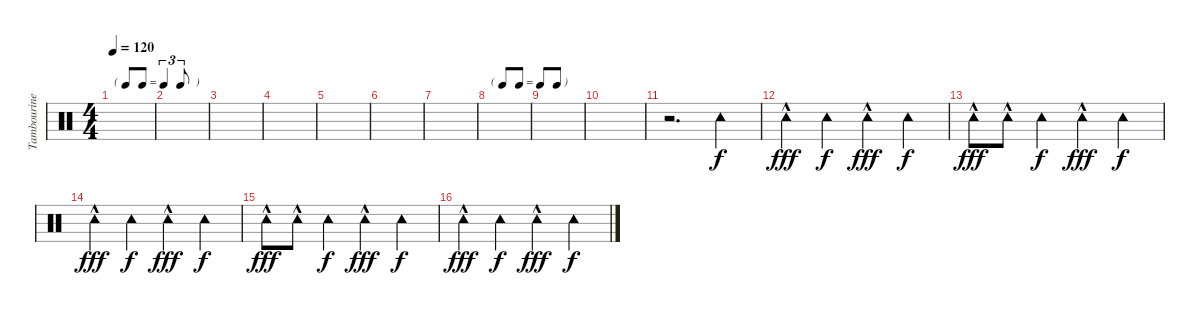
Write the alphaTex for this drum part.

\track ("Tambourine" "Tambourine") {instrument percussion}
\staff {score}
\articulation defaults
\ts (4 4)
\tf triplet8th
\tempo 120
\clef neutral
\ks c
|
|
|
|
|
|
|
\tf none
|
|
|
r.2{d} "Tambourine (hit)".4 |
"Tambourine (hit)"{hac}.4{dy fff} "Tambourine (hit)".4{dy f} "Tambourine (hit)"{hac}.4{dy fff} "Tambourine (hit)".4{dy f} |
"Tambourine (hit)"{hac}.8{dy fff} "Tambourine (hit)"{hac}.8 "Tambourine (hit)".4{dy f} "Tambourine (hit)"{hac}.4{dy fff} "Tambourine (hit)".4{dy f} |
"Tambourine (hit)"{hac}.4{dy fff} "Tambourine (hit)".4{dy f} "Tambourine (hit)"{hac}.4{dy fff} "Tambourine (hit)".4{dy f} |
"Tambourine (hit)"{hac}.8{dy fff} "Tambourine (hit)"{hac}.8 "Tambourine (hit)".4{dy f} "Tambourine (hit)"{hac}.4{dy fff} "Tambourine (hit)".4{dy f} |
"Tambourine (hit)"{hac}.4{dy fff} "Tambourine (hit)".4{dy f} "Tambourine (hit)"{hac}.4{dy fff} "Tambourine (hit)".4{dy f}
